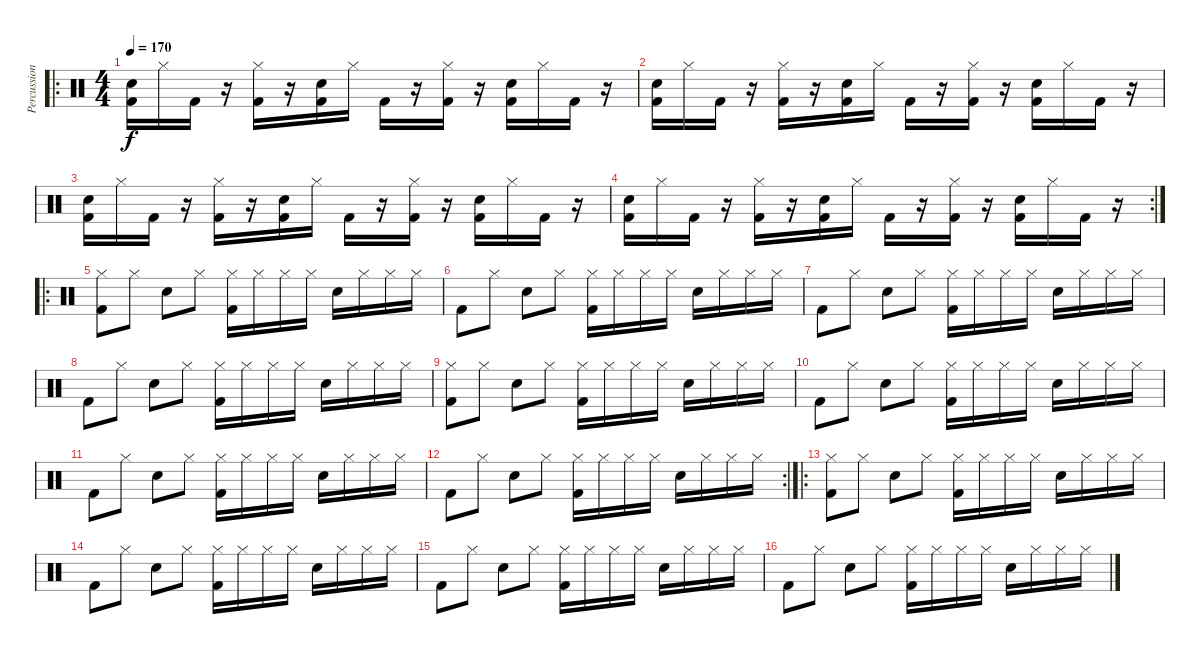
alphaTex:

\track ("Percussion" "Percussion") {instrument percussion}
\staff {score}
\articulation defaults
\ro
\ts (4 4)
\tempo 170
\clef neutral
\ks c
("Electric Snare (hit)" "Kick (hit) 2").16{dy f} "Hi-Hat (closed)".16 "Kick (hit) 2".16 r.16 ("Hi-Hat (closed)" "Kick (hit) 2").16 r.16 ("Electric Snare (hit)" "Kick (hit) 2").16 "Hi-Hat (closed)".16 "Kick (hit) 2".16 r.16 ("Hi-Hat (closed)" "Kick (hit) 2").16 r.16 ("Electric Snare (hit)" "Kick (hit) 2").16 "Hi-Hat (closed)".16 "Kick (hit) 2".16 r.16 |
("Electric Snare (hit)" "Kick (hit) 2").16 "Hi-Hat (closed)".16 "Kick (hit) 2".16 r.16 ("Hi-Hat (closed)" "Kick (hit) 2").16 r.16 ("Electric Snare (hit)" "Kick (hit) 2").16 "Hi-Hat (closed)".16 "Kick (hit) 2".16 r.16 ("Hi-Hat (closed)" "Kick (hit) 2").16 r.16 ("Electric Snare (hit)" "Kick (hit) 2").16 "Hi-Hat (closed)".16 "Kick (hit) 2".16 r.16 |
("Electric Snare (hit)" "Kick (hit) 2").16 "Hi-Hat (closed)".16 "Kick (hit) 2".16 r.16 ("Hi-Hat (closed)" "Kick (hit) 2").16 r.16 ("Electric Snare (hit)" "Kick (hit) 2").16 "Hi-Hat (closed)".16 "Kick (hit) 2".16 r.16 ("Hi-Hat (closed)" "Kick (hit) 2").16 r.16 ("Electric Snare (hit)" "Kick (hit) 2").16 "Hi-Hat (closed)".16 "Kick (hit) 2".16 r.16 |
\rc 2
("Electric Snare (hit)" "Kick (hit) 2").16 "Hi-Hat (closed)".16 "Kick (hit) 2".16 r.16 ("Hi-Hat (closed)" "Kick (hit) 2").16 r.16 ("Electric Snare (hit)" "Kick (hit) 2").16 "Hi-Hat (closed)".16 "Kick (hit) 2".16 r.16 ("Hi-Hat (closed)" "Kick (hit) 2").16 r.16 ("Electric Snare (hit)" "Kick (hit) 2").16 "Hi-Hat (closed)".16 "Kick (hit) 2".16 r.16 |
\ro
("Hi-Hat (closed)" "Kick (hit) 2").8 "Hi-Hat (closed)".8 "Electric Snare (hit)".8 "Hi-Hat (closed)".8 ("Hi-Hat (closed)" "Kick (hit) 2").16 "Hi-Hat (closed)".16 "Hi-Hat (closed)".16 "Hi-Hat (closed)".16 "Electric Snare (hit)".16 "Hi-Hat (closed)".16 "Hi-Hat (closed)".16 "Hi-Hat (closed)".16 |
"Kick (hit) 2".8 "Hi-Hat (closed)".8 "Electric Snare (hit)".8 "Hi-Hat (closed)".8 ("Hi-Hat (closed)" "Kick (hit) 2").16 "Hi-Hat (closed)".16 "Hi-Hat (closed)".16 "Hi-Hat (closed)".16 "Electric Snare (hit)".16 "Hi-Hat (closed)".16 "Hi-Hat (closed)".16 "Hi-Hat (closed)".16 |
"Kick (hit) 2".8 "Hi-Hat (closed)".8 "Electric Snare (hit)".8 "Hi-Hat (closed)".8 ("Hi-Hat (closed)" "Kick (hit) 2").16 "Hi-Hat (closed)".16 "Hi-Hat (closed)".16 "Hi-Hat (closed)".16 "Electric Snare (hit)".16 "Hi-Hat (closed)".16 "Hi-Hat (closed)".16 "Hi-Hat (closed)".16 |
"Kick (hit) 2".8 "Hi-Hat (closed)".8 "Electric Snare (hit)".8 "Hi-Hat (closed)".8 ("Hi-Hat (closed)" "Kick (hit) 2").16 "Hi-Hat (closed)".16 "Hi-Hat (closed)".16 "Hi-Hat (closed)".16 "Electric Snare (hit)".16 "Hi-Hat (closed)".16 "Hi-Hat (closed)".16 "Hi-Hat (closed)".16 |
("Hi-Hat (closed)" "Kick (hit) 2").8 "Hi-Hat (closed)".8 "Electric Snare (hit)".8 "Hi-Hat (closed)".8 ("Hi-Hat (closed)" "Kick (hit) 2").16 "Hi-Hat (closed)".16 "Hi-Hat (closed)".16 "Hi-Hat (closed)".16 "Electric Snare (hit)".16 "Hi-Hat (closed)".16 "Hi-Hat (closed)".16 "Hi-Hat (closed)".16 |
"Kick (hit) 2".8 "Hi-Hat (closed)".8 "Electric Snare (hit)".8 "Hi-Hat (closed)".8 ("Hi-Hat (closed)" "Kick (hit) 2").16 "Hi-Hat (closed)".16 "Hi-Hat (closed)".16 "Hi-Hat (closed)".16 "Electric Snare (hit)".16 "Hi-Hat (closed)".16 "Hi-Hat (closed)".16 "Hi-Hat (closed)".16 |
"Kick (hit) 2".8 "Hi-Hat (closed)".8 "Electric Snare (hit)".8 "Hi-Hat (closed)".8 ("Hi-Hat (closed)" "Kick (hit) 2").16 "Hi-Hat (closed)".16 "Hi-Hat (closed)".16 "Hi-Hat (closed)".16 "Electric Snare (hit)".16 "Hi-Hat (closed)".16 "Hi-Hat (closed)".16 "Hi-Hat (closed)".16 |
\rc 2 "Kick (hit) 2".8 "Hi-Hat (closed)".8 "Electric Snare (hit)".8 "Hi-Hat (closed)".8
("Hi-Hat (closed)" "Kick (hit) 2").16 "Hi-Hat (closed)".16 "Hi-Hat (closed)".16 "Hi-Hat (closed)".16 "Electric Snare (hit)".16 "Hi-Hat (closed)".16 "Hi-Hat (closed)".16 "Hi-Hat (closed)".16 |
\ro
("Hi-Hat (closed)" "Kick (hit) 2").8 "Hi-Hat (closed)".8 "Electric Snare (hit)".8 "Hi-Hat (closed)".8 ("Hi-Hat (closed)" "Kick (hit) 2").16 "Hi-Hat (closed)".16 "Hi-Hat (closed)".16 "Hi-Hat (closed)".16 "Electric Snare (hit)".16 "Hi-Hat (closed)".16 "Hi-Hat (closed)".16 "Hi-Hat (closed)".16 |
"Kick (hit) 2".8 "Hi-Hat (closed)".8 "Electric Snare (hit)".8 "Hi-Hat (closed)".8 ("Hi-Hat (closed)" "Kick (hit) 2").16 "Hi-Hat (closed)".16 "Hi-Hat (closed)".16 "Hi-Hat (closed)".16 "Electric Snare (hit)".16 "Hi-Hat (closed)".16 "Hi-Hat (closed)".16 "Hi-Hat (closed)".16 |
"Kick (hit) 2".8 "Hi-Hat (closed)".8 "Electric Snare (hit)".8 "Hi-Hat (closed)".8 ("Hi-Hat (closed)" "Kick (hit) 2").16 "Hi-Hat (closed)".16 "Hi-Hat (closed)".16 "Hi-Hat (closed)".16 "Electric Snare (hit)".16 "Hi-Hat (closed)".16 "Hi-Hat (closed)".16 "Hi-Hat (closed)".16 |
"Kick (hit) 2".8 "Hi-Hat (closed)".8 "Electric Snare (hit)".8 "Hi-Hat (closed)".8 ("Hi-Hat (closed)" "Kick (hit) 2").16 "Hi-Hat (closed)".16 "Hi-Hat (closed)".16 "Hi-Hat (closed)".16 "Electric Snare (hit)".16 "Hi-Hat (closed)".16 "Hi-Hat (closed)".16 "Hi-Hat (closed)".16
